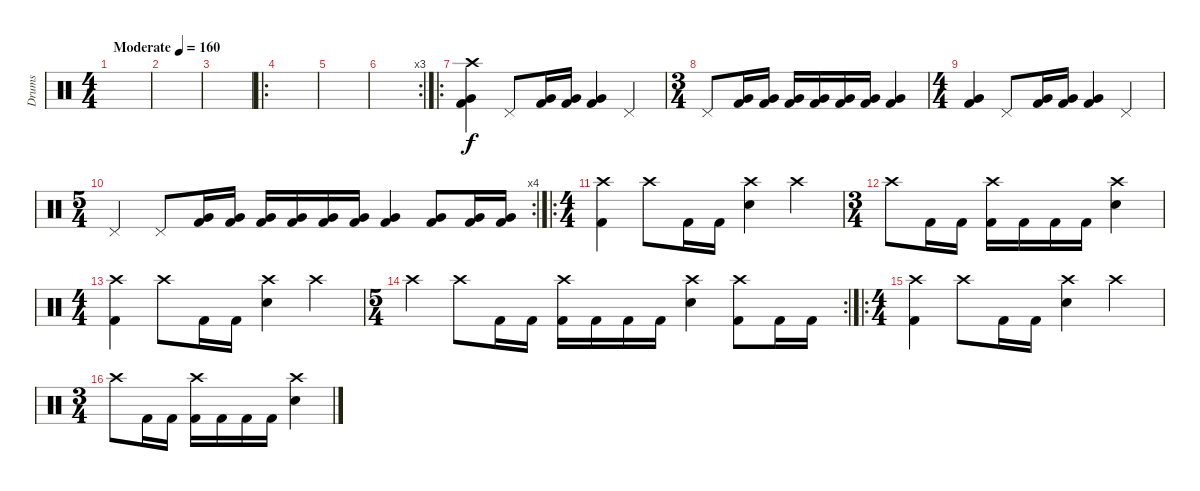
\track ("Drums" "Drums") {instrument percussion}
\staff {score}
\articulation defaults
\ts (4 4)
\tempo (160 "Moderate")
\clef neutral
\ks c
|
|
|
\ro
|
|
\rc 3
|
\ro
("Crash high (hit)" "Very Low Tom (hit)" "Kick (hit) 2").4 "Pedal Hi-Hat (hit)".8 ("Very Low Tom (hit)" "Kick (hit) 2").16 ("Very Low Tom (hit)" "Kick (hit) 2").16 ("Very Low Tom (hit)" "Kick (hit) 2").4 "Pedal Hi-Hat (hit)".4 |
\ts (3 4)
"Pedal Hi-Hat (hit)".8 ("Very Low Tom (hit)" "Kick (hit) 2").16 ("Very Low Tom (hit)" "Kick (hit) 2").16 ("Very Low Tom (hit)" "Kick (hit) 2").16 ("Very Low Tom (hit)" "Kick (hit) 2").16 ("Very Low Tom (hit)" "Kick (hit) 2").16 ("Very Low Tom (hit)" "Kick (hit) 2").16 ("Very Low Tom (hit)" "Kick (hit) 2").4 |
\ts (4 4)
("Very Low Tom (hit)" "Kick (hit) 2").4 "Pedal Hi-Hat (hit)".8 ("Very Low Tom (hit)" "Kick (hit) 2").16 ("Very Low Tom (hit)" "Kick (hit) 2").16 ("Very Low Tom (hit)" "Kick (hit) 2").4 "Pedal Hi-Hat (hit)".4 |
\rc 4
\ts (5 4)
"Pedal Hi-Hat (hit)".4 "Pedal Hi-Hat (hit)".8 ("Very Low Tom (hit)" "Kick (hit) 2").16 ("Very Low Tom (hit)" "Kick (hit) 2").16 ("Very Low Tom (hit)" "Kick (hit) 2").16 ("Very Low Tom (hit)" "Kick (hit) 2").16 ("Very Low Tom (hit)" "Kick (hit) 2").16 ("Very Low Tom (hit)" "Kick (hit) 2").16 ("Very Low Tom (hit)" "Kick (hit) 2").4 ("Very Low Tom (hit)" "Kick (hit) 2").8 ("Very Low Tom (hit)" "Kick (hit) 2").16 ("Very Low Tom (hit)" "Kick (hit) 2").16 |
\ro
\ts (4 4)
("Crash high (hit)" "Kick (hit) 2").4 "Crash high (hit)".8 "Kick (hit) 2".16 "Kick (hit) 2".16 ("Crash high (hit)" "Electric Snare (hit)").4 "Crash high (hit)".4 |
\ts (3 4)
"Crash high (hit)".8 "Kick (hit) 2".16 "Kick (hit) 2".16 ("Crash high (hit)" "Kick (hit) 2").16 "Kick (hit) 2".16 "Kick (hit) 2".16 "Kick (hit) 2".16 ("Crash high (hit)" "Electric Snare (hit)").4 |
\ts (4 4)
("Crash high (hit)" "Kick (hit) 2").4 "Crash high (hit)".8 "Kick (hit) 2".16 "Kick (hit) 2".16 ("Crash high (hit)" "Electric Snare (hit)").4 "Crash high (hit)".4 |
\rc 2
\ts (5 4)
"Crash high (hit)".4 "Crash high (hit)".8 "Kick (hit) 2".16 "Kick (hit) 2".16 ("Crash high (hit)" "Kick (hit) 2").16 "Kick (hit) 2".16 "Kick (hit) 2".16 "Kick (hit) 2".16 ("Crash high (hit)" "Electric Snare (hit)").4 ("Crash high (hit)" "Kick (hit) 2").8 "Kick (hit) 2".16 "Kick (hit) 2".16 |
\ro
\ts (4 4)
("Crash high (hit)" "Kick (hit) 2").4 "Crash high (hit)".8 "Kick (hit) 2".16 "Kick (hit) 2".16 ("Crash high (hit)" "Electric Snare (hit)").4 "Crash high (hit)".4 |
\ts (3 4)
"Crash high (hit)".8 "Kick (hit) 2".16 "Kick (hit) 2".16 ("Crash high (hit)" "Kick (hit) 2").16 "Kick (hit) 2".16 "Kick (hit) 2".16 "Kick (hit) 2".16 ("Crash high (hit)" "Electric Snare (hit)").4
